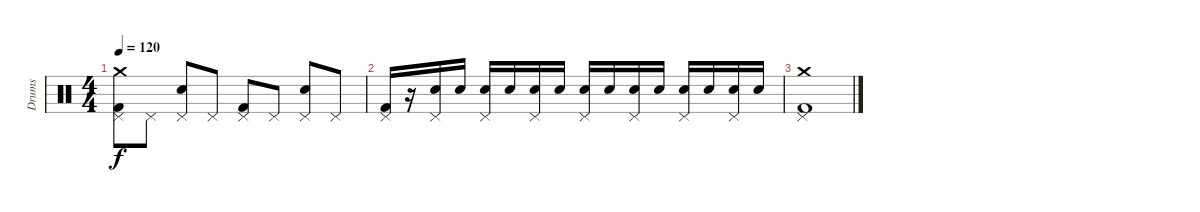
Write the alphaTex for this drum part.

\track ("Drums" "Drums") {instrument percussion}
\staff {score}
\articulation defaults
\ts (4 4)
\tempo 120
\clef neutral
\ks c
("Kick (hit) 2" "Pedal Hi-Hat (hit)" "Crash medium (hit)").8{dy f} "Pedal Hi-Hat (hit)".8 ("Snare (hit) 2" "Pedal Hi-Hat (hit)").8 "Pedal Hi-Hat (hit)".8 ("Kick (hit) 2" "Pedal Hi-Hat (hit)").8 "Pedal Hi-Hat (hit)".8 ("Snare (hit) 2" "Pedal Hi-Hat (hit)").8 "Pedal Hi-Hat (hit)".8 |
("Kick (hit) 2" "Pedal Hi-Hat (hit)").16 r.16 ("Snare (hit) 2" "Pedal Hi-Hat (hit)").16 "Snare (hit) 2".16 ("Snare (hit) 2" "Pedal Hi-Hat (hit)").16 "Snare (hit) 2".16 ("Snare (hit) 2" "Pedal Hi-Hat (hit)").16 "Snare (hit) 2".16 ("Snare (hit) 2" "Pedal Hi-Hat (hit)").16 "Snare (hit) 2".16 ("Snare (hit) 2" "Pedal Hi-Hat (hit)").16 "Snare (hit) 2".16 ("Snare (hit) 2" "Pedal Hi-Hat (hit)").16 "Snare (hit) 2".16 ("Snare (hit) 2" "Pedal Hi-Hat (hit)").16 "Snare (hit) 2".16 |
("Kick (hit) 2" "Pedal Hi-Hat (hit)" "Crash medium (hit)").1
